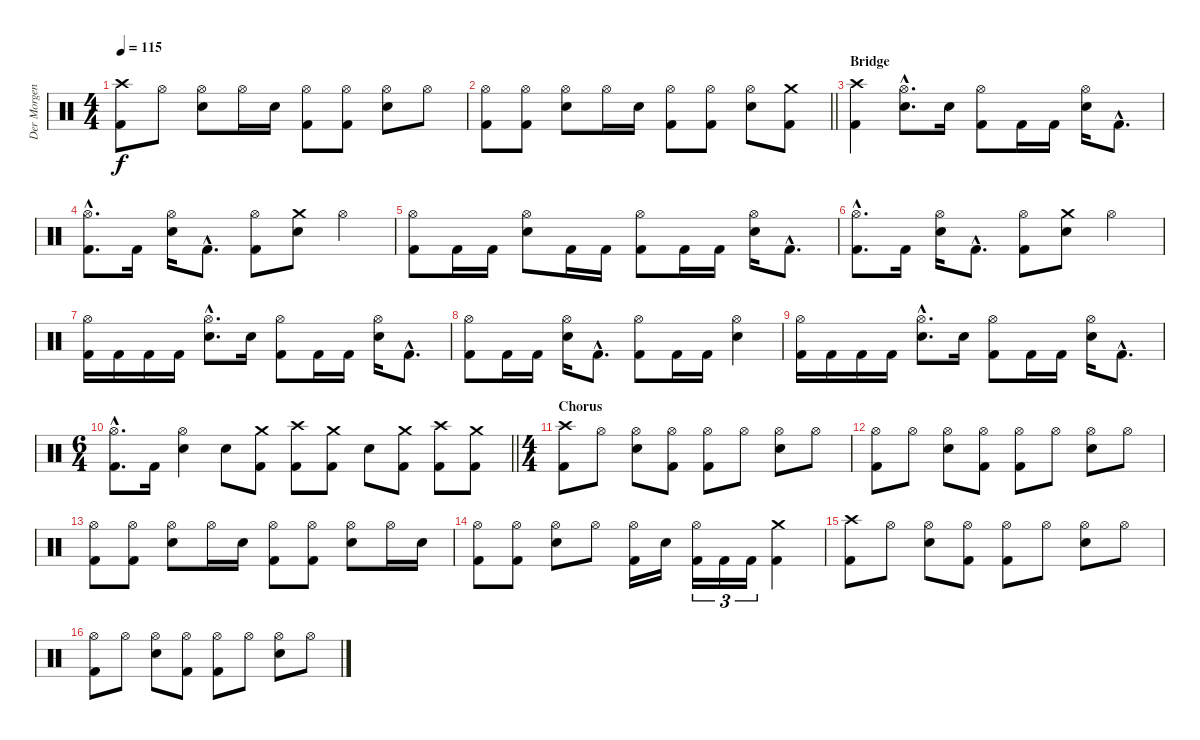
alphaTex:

\track ("Der Morgenstern" "Der Morgen") {instrument percussion}
\staff {score}
\articulation defaults
\ts (4 4)
\tempo 115
\clef neutral
\ks c
("Crash high (hit)" "Kick (hit) 2").8{dy f} "Hi-Hat (open)".8 ("Hi-Hat (open)" "Electric Snare (hit)").8 "Hi-Hat (open)".16 "Electric Snare (hit)".16 ("Hi-Hat (open)" "Kick (hit) 2").8 ("Hi-Hat (open)" "Kick (hit) 2").8 ("Hi-Hat (open)" "Electric Snare (hit)").8 "Hi-Hat (open)".8 |
\barLineRight lightlight
("Hi-Hat (open)" "Kick (hit) 2").8 ("Hi-Hat (open)" "Kick (hit) 2").8 ("Hi-Hat (open)" "Electric Snare (hit)").8 "Hi-Hat (open)".16 "Electric Snare (hit)".16 ("Hi-Hat (open)" "Kick (hit) 2").8 ("Hi-Hat (open)" "Kick (hit) 2").8 ("Hi-Hat (open)" "Electric Snare (hit)").8 ("Crash medium (hit)" "Kick (hit) 2").8 |
\section ("" "Bridge")
("Crash high (hit)" "Kick (hit) 2").4 ("Hi-Hat (open)"{hac} "Electric Snare (hit)"{hac}).8{d} "Electric Snare (hit)".16 ("Hi-Hat (open)" "Kick (hit) 2").8 "Kick (hit) 2".16 "Kick (hit) 2".16 ("Hi-Hat (open)" "Electric Snare (hit)").16 "Kick (hit) 2"{hac}.8{d} |
("Hi-Hat (open)"{hac} "Kick (hit) 2"{hac}).8{d} "Kick (hit) 2".16 ("Hi-Hat (open)" "Electric Snare (hit)").16 "Kick (hit) 2"{hac}.8{d} ("Hi-Hat (open)" "Kick (hit) 2").8 ("Crash medium (hit)" "Electric Snare (hit)").8 "Hi-Hat (open)".4 |
("Hi-Hat (open)" "Kick (hit) 2").8 "Kick (hit) 2".16 "Kick (hit) 2".16 ("Hi-Hat (open)" "Electric Snare (hit)").8 "Kick (hit) 2".16 "Kick (hit) 2".16 ("Hi-Hat (open)" "Kick (hit) 2").8 "Kick (hit) 2".16 "Kick (hit) 2".16 ("Hi-Hat (open)" "Electric Snare (hit)").16 "Kick (hit) 2"{hac}.8{d} |
("Hi-Hat (open)"{hac} "Kick (hit) 2"{hac}).8{d} "Kick (hit) 2".16 ("Hi-Hat (open)" "Electric Snare (hit)").16 "Kick (hit) 2"{hac}.8{d} ("Hi-Hat (open)" "Kick (hit) 2").8 ("Crash medium (hit)" "Electric Snare (hit)").8 "Hi-Hat (open)".4 |
("Hi-Hat (open)" "Kick (hit) 2").16 "Kick (hit) 2".16 "Kick (hit) 2".16 "Kick (hit) 2".16 ("Hi-Hat (open)"{hac} "Electric Snare (hit)"{hac}).8{d} "Electric Snare (hit)".16 ("Hi-Hat (open)" "Kick (hit) 2").8 "Kick (hit) 2".16 "Kick (hit) 2".16 ("Hi-Hat (open)" "Electric Snare (hit)").16 "Kick (hit) 2"{hac}.8{d} |
("Hi-Hat (open)" "Kick (hit) 2").8 "Kick (hit) 2".16 "Kick (hit) 2".16 ("Hi-Hat (open)" "Electric Snare (hit)").16 "Kick (hit) 2"{hac}.8{d} ("Hi-Hat (open)" "Kick (hit) 2").8 "Kick (hit) 2".16 "Kick (hit) 2".16 ("Hi-Hat (open)" "Electric Snare (hit)").4 |
("Hi-Hat (open)" "Kick (hit) 2").16 "Kick (hit) 2".16 "Kick (hit) 2".16 "Kick (hit) 2".16 ("Hi-Hat (open)"{hac} "Electric Snare (hit)"{hac}).8{d} "Electric Snare (hit)".16 ("Hi-Hat (open)" "Kick (hit) 2").8 "Kick (hit) 2".16 "Kick (hit) 2".16 ("Hi-Hat (open)" "Electric Snare (hit)").16 "Kick (hit) 2"{hac}.8{d} |
\ts (6 4)
\barLineRight lightlight
("Hi-Hat (open)"{hac} "Kick (hit) 2"{hac}).8{d} "Kick (hit) 2".16 ("Hi-Hat (open)" "Electric Snare (hit)").4 "Electric Snare (hit)".8 ("Crash medium (hit)" "Kick (hit) 2").8 ("Crash high (hit)" "Kick (hit) 2").8 ("Crash medium (hit)" "Kick (hit) 2").8 "Electric Snare (hit)".8 ("Crash medium (hit)" "Kick (hit) 2").8 ("Crash high (hit)" "Kick (hit) 2").8 ("Crash medium (hit)" "Kick (hit) 2").8 |
\ts (4 4)
\section ("" "Chorus")
("Crash high (hit)" "Kick (hit) 2").8 "Hi-Hat (open)".8 ("Hi-Hat (open)" "Electric Snare (hit)").8 ("Hi-Hat (open)" "Kick (hit) 2").8 ("Hi-Hat (open)" "Kick (hit) 2").8 "Hi-Hat (open)".8 ("Hi-Hat (open)" "Electric Snare (hit)").8 "Hi-Hat (open)".8 |
("Hi-Hat (open)" "Kick (hit) 2").8 "Hi-Hat (open)".8 ("Hi-Hat (open)" "Electric Snare (hit)").8 ("Hi-Hat (open)" "Kick (hit) 2").8 ("Hi-Hat (open)" "Kick (hit) 2").8 "Hi-Hat (open)".8 ("Hi-Hat (open)" "Electric Snare (hit)").8 "Hi-Hat (open)".8 |
("Hi-Hat (open)" "Kick (hit) 2").8 ("Hi-Hat (open)" "Kick (hit) 2").8 ("Hi-Hat (open)" "Electric Snare (hit)").8 "Hi-Hat (open)".16 "Electric Snare (hit)".16 ("Hi-Hat (open)" "Kick (hit) 2").8 ("Hi-Hat (open)" "Kick (hit) 2").8 ("Hi-Hat (open)" "Electric Snare (hit)").8 "Hi-Hat (open)".16 "Electric Snare (hit)".16 |
("Hi-Hat (open)" "Kick (hit) 2").8 ("Hi-Hat (open)" "Kick (hit) 2").8 ("Hi-Hat (open)" "Electric Snare (hit)").8 "Hi-Hat (open)".8 ("Hi-Hat (open)" "Kick (hit) 2").16 "Electric Snare (hit)".16 ("Hi-Hat (open)" "Kick (hit) 2").16{tu (3 2)} "Kick (hit) 2".16{tu (3 2)} "Kick (hit) 2".16{tu (3 2)} ("Crash medium (hit)" "Kick (hit) 2").4 |
("Crash high (hit)" "Kick (hit) 2").8 "Hi-Hat (open)".8 ("Hi-Hat (open)" "Electric Snare (hit)").8 ("Hi-Hat (open)" "Kick (hit) 2").8 ("Hi-Hat (open)" "Kick (hit) 2").8 "Hi-Hat (open)".8 ("Hi-Hat (open)" "Electric Snare (hit)").8 "Hi-Hat (open)".8 |
("Hi-Hat (open)" "Kick (hit) 2").8 "Hi-Hat (open)".8 ("Hi-Hat (open)" "Electric Snare (hit)").8 ("Hi-Hat (open)" "Kick (hit) 2").8 ("Hi-Hat (open)" "Kick (hit) 2").8 "Hi-Hat (open)".8 ("Hi-Hat (open)" "Electric Snare (hit)").8 "Hi-Hat (open)".8
